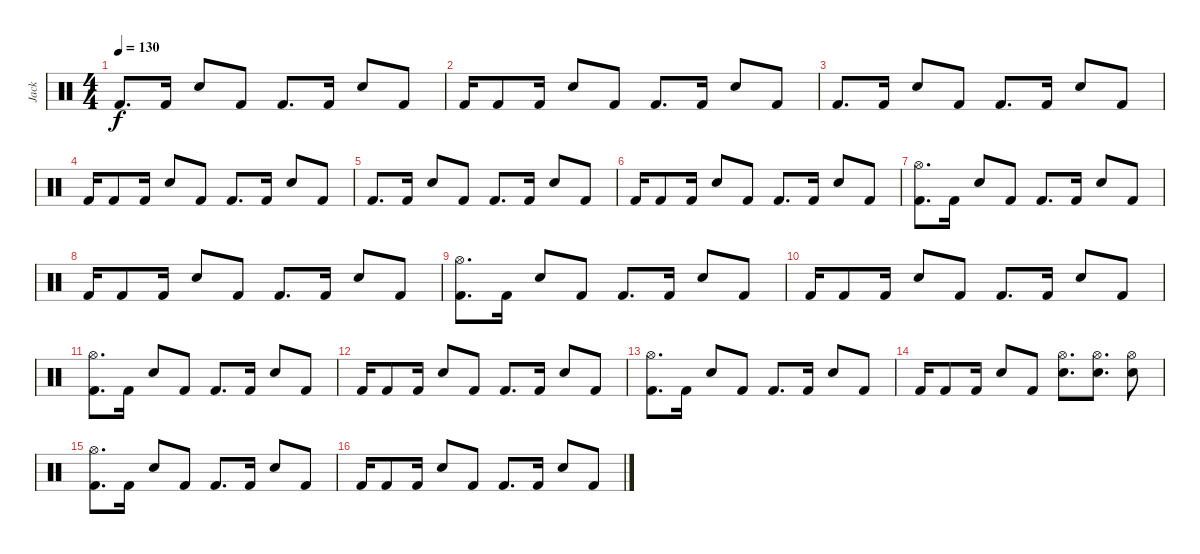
\track ("Jack" "Jack") {instrument percussion}
\staff {score}
\articulation defaults
\ts (4 4)
\tempo 130
\clef neutral
\ks c "Kick (hit) 2".8{d dy f} "Kick (hit) 2".16 "Snare (hit) 2".8 "Kick (hit) 2".8 "Kick (hit) 2".8{d} "Kick (hit) 2".16 "Snare (hit) 2".8 "Kick (hit) 2".8
|
"Kick (hit) 2".16 "Kick (hit) 2".8 "Kick (hit) 2".16 "Snare (hit) 2".8 "Kick (hit) 2".8 "Kick (hit) 2".8{d} "Kick (hit) 2".16 "Snare (hit) 2".8 "Kick (hit) 2".8 |
"Kick (hit) 2".8{d} "Kick (hit) 2".16 "Snare (hit) 2".8 "Kick (hit) 2".8 "Kick (hit) 2".8{d} "Kick (hit) 2".16 "Snare (hit) 2".8 "Kick (hit) 2".8 |
"Kick (hit) 2".16 "Kick (hit) 2".8 "Kick (hit) 2".16 "Snare (hit) 2".8 "Kick (hit) 2".8 "Kick (hit) 2".8{d} "Kick (hit) 2".16 "Snare (hit) 2".8 "Kick (hit) 2".8 |
"Kick (hit) 2".8{d} "Kick (hit) 2".16 "Snare (hit) 2".8 "Kick (hit) 2".8 "Kick (hit) 2".8{d} "Kick (hit) 2".16 "Snare (hit) 2".8 "Kick (hit) 2".8 |
"Kick (hit) 2".16 "Kick (hit) 2".8 "Kick (hit) 2".16 "Snare (hit) 2".8 "Kick (hit) 2".8 "Kick (hit) 2".8{d} "Kick (hit) 2".16 "Snare (hit) 2".8 "Kick (hit) 2".8 |
("Hi-Hat (open)" "Kick (hit) 2").8{d} "Kick (hit) 2".16 "Snare (hit) 2".8 "Kick (hit) 2".8 "Kick (hit) 2".8{d} "Kick (hit) 2".16 "Snare (hit) 2".8 "Kick (hit) 2".8 |
"Kick (hit) 2".16 "Kick (hit) 2".8 "Kick (hit) 2".16 "Snare (hit) 2".8 "Kick (hit) 2".8 "Kick (hit) 2".8{d} "Kick (hit) 2".16 "Snare (hit) 2".8 "Kick (hit) 2".8 |
("Hi-Hat (open)" "Kick (hit) 2").8{d} "Kick (hit) 2".16 "Snare (hit) 2".8 "Kick (hit) 2".8 "Kick (hit) 2".8{d} "Kick (hit) 2".16 "Snare (hit) 2".8 "Kick (hit) 2".8 |
"Kick (hit) 2".16 "Kick (hit) 2".8 "Kick (hit) 2".16 "Snare (hit) 2".8 "Kick (hit) 2".8 "Kick (hit) 2".8{d} "Kick (hit) 2".16 "Snare (hit) 2".8 "Kick (hit) 2".8 |
("Hi-Hat (open)" "Kick (hit) 2").8{d} "Kick (hit) 2".16 "Snare (hit) 2".8 "Kick (hit) 2".8 "Kick (hit) 2".8{d} "Kick (hit) 2".16 "Snare (hit) 2".8 "Kick (hit) 2".8 |
"Kick (hit) 2".16 "Kick (hit) 2".8 "Kick (hit) 2".16 "Snare (hit) 2".8 "Kick (hit) 2".8 "Kick (hit) 2".8{d} "Kick (hit) 2".16 "Snare (hit) 2".8 "Kick (hit) 2".8 |
("Hi-Hat (open)" "Kick (hit) 2").8{d} "Kick (hit) 2".16 "Snare (hit) 2".8 "Kick (hit) 2".8 "Kick (hit) 2".8{d} "Kick (hit) 2".16 "Snare (hit) 2".8 "Kick (hit) 2".8 |
"Kick (hit) 2".16 "Kick (hit) 2".8 "Kick (hit) 2".16 "Snare (hit) 2".8 "Kick (hit) 2".8 ("Hi-Hat (open)" "Snare (hit) 2").8{d} ("Hi-Hat (open)" "Snare (hit) 2").8{d} ("Hi-Hat (open)" "Snare (hit) 2").8 |
("Hi-Hat (open)" "Kick (hit) 2").8{d} "Kick (hit) 2".16 "Snare (hit) 2".8 "Kick (hit) 2".8 "Kick (hit) 2".8{d} "Kick (hit) 2".16 "Snare (hit) 2".8 "Kick (hit) 2".8 |
"Kick (hit) 2".16 "Kick (hit) 2".8 "Kick (hit) 2".16 "Snare (hit) 2".8 "Kick (hit) 2".8 "Kick (hit) 2".8{d} "Kick (hit) 2".16 "Snare (hit) 2".8 "Kick (hit) 2".8
